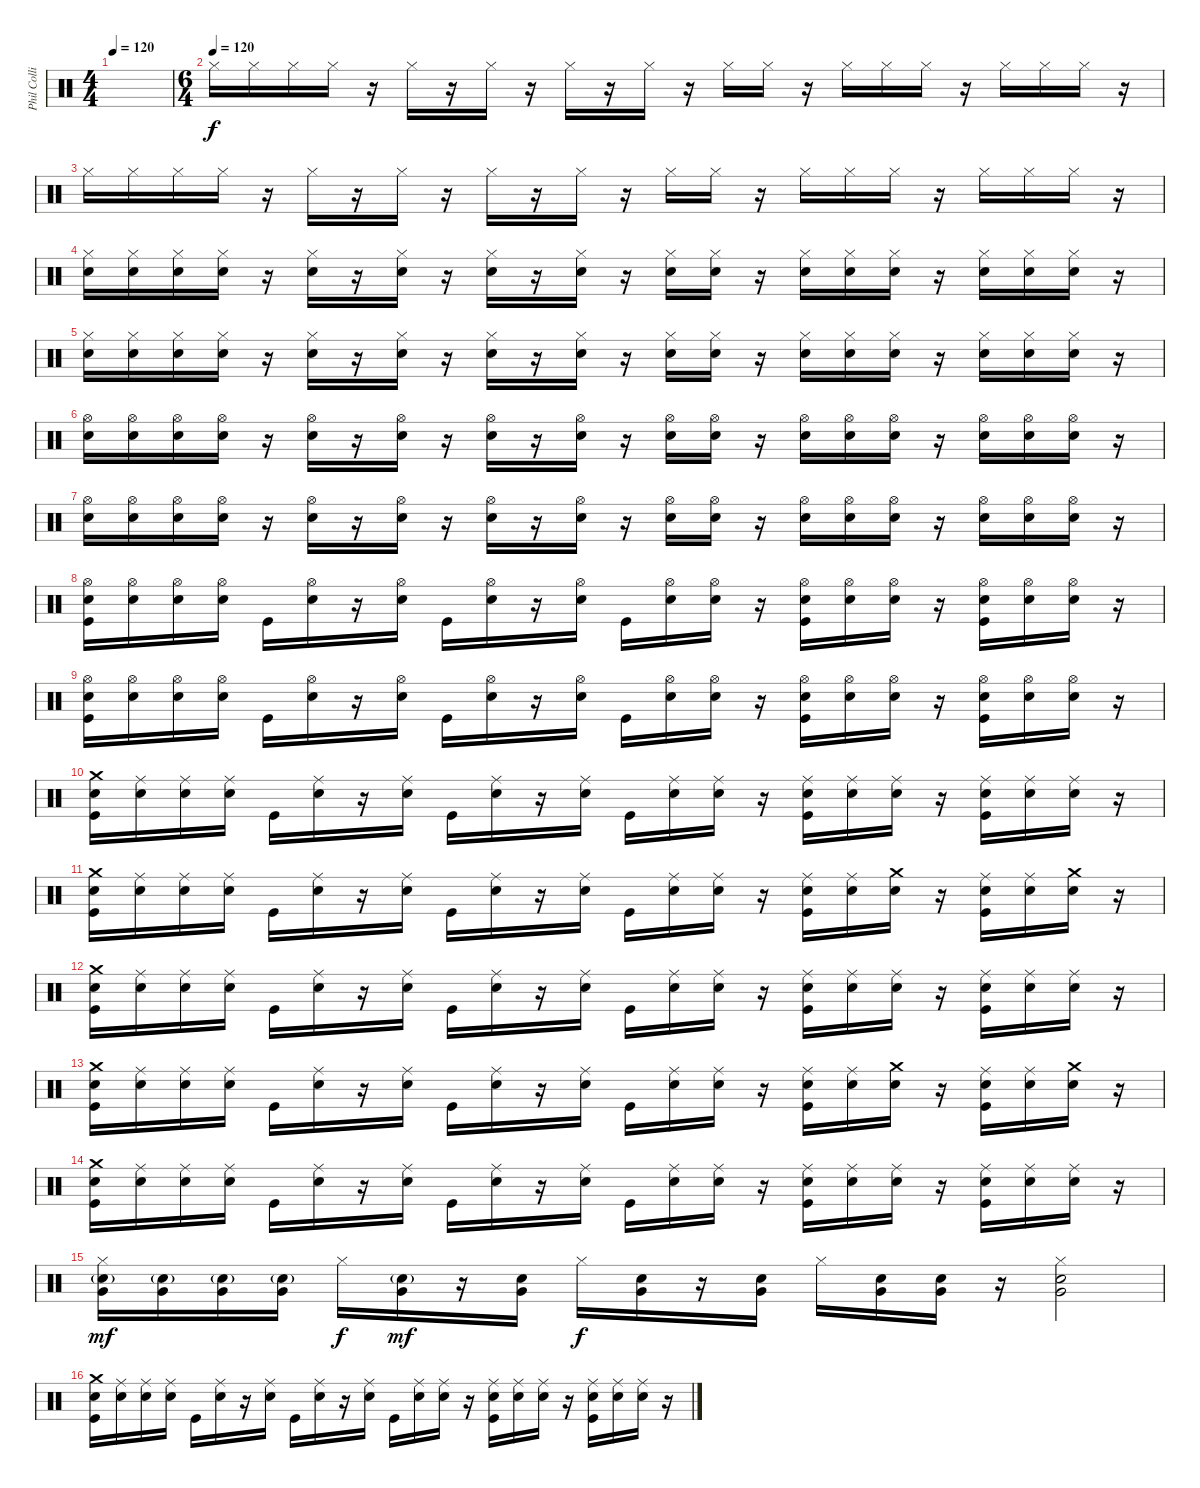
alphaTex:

\track ("Phil Collins" "Phil Colli") {instrument percussion}
\staff
\articulation defaults
\ts (4 4)
\tempo 120
\clef neutral
\ks c
|
\ts (6 4)
\tempo (120)
"Hi-Hat (closed)".16 "Hi-Hat (closed)".16 "Hi-Hat (closed)".16 "Hi-Hat (closed)".16 r.16 "Hi-Hat (closed)".16 r.16 "Hi-Hat (closed)".16 r.16 "Hi-Hat (closed)".16 r.16 "Hi-Hat (closed)".16 r.16 "Hi-Hat (closed)".16 "Hi-Hat (closed)".16 r.16 "Hi-Hat (closed)".16 "Hi-Hat (closed)".16 "Hi-Hat (closed)".16 r.16 "Hi-Hat (closed)".16 "Hi-Hat (closed)".16 "Hi-Hat (closed)".16 r.16 |
"Hi-Hat (closed)".16 "Hi-Hat (closed)".16 "Hi-Hat (closed)".16 "Hi-Hat (closed)".16 r.16 "Hi-Hat (closed)".16 r.16 "Hi-Hat (closed)".16 r.16 "Hi-Hat (closed)".16 r.16 "Hi-Hat (closed)".16 r.16 "Hi-Hat (closed)".16 "Hi-Hat (closed)".16 r.16 "Hi-Hat (closed)".16 "Hi-Hat (closed)".16 "Hi-Hat (closed)".16 r.16 "Hi-Hat (closed)".16 "Hi-Hat (closed)".16 "Hi-Hat (closed)".16 r.16 |
("Electric Snare (hit)" "Hi-Hat (closed)").16 ("Electric Snare (hit)" "Hi-Hat (closed)").16 ("Electric Snare (hit)" "Hi-Hat (closed)").16 ("Electric Snare (hit)" "Hi-Hat (closed)").16 r.16 ("Electric Snare (hit)" "Hi-Hat (closed)").16 r.16 ("Electric Snare (hit)" "Hi-Hat (closed)").16 r.16 ("Electric Snare (hit)" "Hi-Hat (closed)").16 r.16 ("Electric Snare (hit)" "Hi-Hat (closed)").16 r.16 ("Electric Snare (hit)" "Hi-Hat (closed)").16 ("Electric Snare (hit)" "Hi-Hat (closed)").16 r.16 ("Electric Snare (hit)" "Hi-Hat (closed)").16 ("Electric Snare (hit)" "Hi-Hat (closed)").16 ("Electric Snare (hit)" "Hi-Hat (closed)").16 r.16 ("Electric Snare (hit)" "Hi-Hat (closed)").16 ("Electric Snare (hit)" "Hi-Hat (closed)").16 ("Electric Snare (hit)" "Hi-Hat (closed)").16 r.16 |
("Electric Snare (hit)" "Hi-Hat (closed)").16 ("Electric Snare (hit)" "Hi-Hat (closed)").16 ("Electric Snare (hit)" "Hi-Hat (closed)").16 ("Electric Snare (hit)" "Hi-Hat (closed)").16 r.16 ("Electric Snare (hit)" "Hi-Hat (closed)").16 r.16 ("Electric Snare (hit)" "Hi-Hat (closed)").16 r.16 ("Electric Snare (hit)" "Hi-Hat (closed)").16 r.16 ("Electric Snare (hit)" "Hi-Hat (closed)").16 r.16 ("Electric Snare (hit)" "Hi-Hat (closed)").16 ("Electric Snare (hit)" "Hi-Hat (closed)").16 r.16 ("Electric Snare (hit)" "Hi-Hat (closed)").16 ("Electric Snare (hit)" "Hi-Hat (closed)").16 ("Electric Snare (hit)" "Hi-Hat (closed)").16 r.16 ("Electric Snare (hit)" "Hi-Hat (closed)").16 ("Electric Snare (hit)" "Hi-Hat (closed)").16 ("Electric Snare (hit)" "Hi-Hat (closed)").16 r.16 |
("Electric Snare (hit)" "Hi-Hat (open)").16 ("Electric Snare (hit)" "Hi-Hat (open)").16 ("Electric Snare (hit)" "Hi-Hat (open)").16 ("Electric Snare (hit)" "Hi-Hat (open)").16 r.16 ("Electric Snare (hit)" "Hi-Hat (open)").16 r.16 ("Electric Snare (hit)" "Hi-Hat (open)").16 r.16 ("Electric Snare (hit)" "Hi-Hat (open)").16 r.16 ("Electric Snare (hit)" "Hi-Hat (open)").16 r.16 ("Electric Snare (hit)" "Hi-Hat (open)").16 ("Electric Snare (hit)" "Hi-Hat (open)").16 r.16 ("Electric Snare (hit)" "Hi-Hat (open)").16 ("Electric Snare (hit)" "Hi-Hat (open)").16 ("Electric Snare (hit)" "Hi-Hat (open)").16 r.16 ("Electric Snare (hit)" "Hi-Hat (open)").16 ("Electric Snare (hit)" "Hi-Hat (open)").16 ("Electric Snare (hit)" "Hi-Hat (open)").16 r.16 |
("Electric Snare (hit)" "Hi-Hat (open)").16 ("Electric Snare (hit)" "Hi-Hat (open)").16 ("Electric Snare (hit)" "Hi-Hat (open)").16 ("Electric Snare (hit)" "Hi-Hat (open)").16 r.16 ("Electric Snare (hit)" "Hi-Hat (open)").16 r.16 ("Electric Snare (hit)" "Hi-Hat (open)").16 r.16 ("Electric Snare (hit)" "Hi-Hat (open)").16 r.16 ("Electric Snare (hit)" "Hi-Hat (open)").16 r.16 ("Electric Snare (hit)" "Hi-Hat (open)").16 ("Electric Snare (hit)" "Hi-Hat (open)").16 r.16 ("Electric Snare (hit)" "Hi-Hat (open)").16 ("Electric Snare (hit)" "Hi-Hat (open)").16 ("Electric Snare (hit)" "Hi-Hat (open)").16 r.16 ("Electric Snare (hit)" "Hi-Hat (open)").16 ("Electric Snare (hit)" "Hi-Hat (open)").16 ("Electric Snare (hit)" "Hi-Hat (open)").16 r.16 |
("Electric Snare (hit)" "Hi-Hat (open)" "Kick (hit)").16 ("Electric Snare (hit)" "Hi-Hat (open)").16 ("Electric Snare (hit)" "Hi-Hat (open)").16 ("Electric Snare (hit)" "Hi-Hat (open)").16 "Kick (hit)".16 ("Electric Snare (hit)" "Hi-Hat (open)").16 r.16 ("Electric Snare (hit)" "Hi-Hat (open)").16 "Kick (hit)".16 ("Electric Snare (hit)" "Hi-Hat (open)").16 r.16 ("Electric Snare (hit)" "Hi-Hat (open)").16 "Kick (hit)".16 ("Electric Snare (hit)" "Hi-Hat (open)").16 ("Electric Snare (hit)" "Hi-Hat (open)").16 r.16 ("Electric Snare (hit)" "Hi-Hat (open)" "Kick (hit)").16 ("Electric Snare (hit)" "Hi-Hat (open)").16 ("Electric Snare (hit)" "Hi-Hat (open)").16 r.16 ("Electric Snare (hit)" "Hi-Hat (open)" "Kick (hit)").16 ("Electric Snare (hit)" "Hi-Hat (open)").16 ("Electric Snare (hit)" "Hi-Hat (open)").16 r.16 |
("Electric Snare (hit)" "Hi-Hat (open)" "Kick (hit)").16 ("Electric Snare (hit)" "Hi-Hat (open)").16 ("Electric Snare (hit)" "Hi-Hat (open)").16 ("Electric Snare (hit)" "Hi-Hat (open)").16 "Kick (hit)".16 ("Electric Snare (hit)" "Hi-Hat (open)").16 r.16 ("Electric Snare (hit)" "Hi-Hat (open)").16 "Kick (hit)".16 ("Electric Snare (hit)" "Hi-Hat (open)").16 r.16 ("Electric Snare (hit)" "Hi-Hat (open)").16 "Kick (hit)".16 ("Electric Snare (hit)" "Hi-Hat (open)").16 ("Electric Snare (hit)" "Hi-Hat (open)").16 r.16 ("Electric Snare (hit)" "Hi-Hat (open)" "Kick (hit)").16 ("Electric Snare (hit)" "Hi-Hat (open)").16 ("Electric Snare (hit)" "Hi-Hat (open)").16 r.16 ("Electric Snare (hit)" "Hi-Hat (open)" "Kick (hit)").16 ("Electric Snare (hit)" "Hi-Hat (open)").16 ("Electric Snare (hit)" "Hi-Hat (open)").16 r.16 |
("Electric Snare (hit)" "Crash medium (hit)" "Kick (hit)").16 ("Electric Snare (hit)" "Ride (middle)").16 ("Electric Snare (hit)" "Ride (middle)").16 ("Electric Snare (hit)" "Ride (middle)").16 "Kick (hit)".16 ("Electric Snare (hit)" "Ride (middle)").16 r.16 ("Electric Snare (hit)" "Ride (middle)").16 "Kick (hit)".16 ("Electric Snare (hit)" "Ride (middle)").16 r.16 ("Electric Snare (hit)" "Ride (middle)").16 "Kick (hit)".16 ("Electric Snare (hit)" "Ride (middle)").16 ("Electric Snare (hit)" "Ride (middle)").16 r.16 ("Electric Snare (hit)" "Ride (middle)" "Kick (hit)").16 ("Electric Snare (hit)" "Ride (middle)").16 ("Electric Snare (hit)" "Ride (middle)").16 r.16 ("Electric Snare (hit)" "Ride (middle)" "Kick (hit)").16 ("Electric Snare (hit)" "Ride (middle)").16 ("Electric Snare (hit)" "Ride (middle)").16 r.16 |
("Electric Snare (hit)" "Crash medium (hit)" "Kick (hit)").16 ("Electric Snare (hit)" "Ride (middle)").16 ("Electric Snare (hit)" "Ride (middle)").16 ("Electric Snare (hit)" "Ride (middle)").16 "Kick (hit)".16 ("Electric Snare (hit)" "Ride (middle)").16 r.16 ("Electric Snare (hit)" "Ride (middle)").16 "Kick (hit)".16 ("Electric Snare (hit)" "Ride (middle)").16 r.16 ("Electric Snare (hit)" "Ride (middle)").16 "Kick (hit)".16 ("Electric Snare (hit)" "Ride (middle)").16 ("Electric Snare (hit)" "Ride (middle)").16 r.16 ("Electric Snare (hit)" "Ride (middle)" "Kick (hit)").16 ("Electric Snare (hit)" "Ride (middle)").16 ("Electric Snare (hit)" "Crash medium (hit)").16 r.16 ("Electric Snare (hit)" "Ride (middle)" "Kick (hit)").16 ("Electric Snare (hit)" "Ride (middle)").16 ("Electric Snare (hit)" "Crash medium (hit)").16 r.16 |
("Electric Snare (hit)" "Crash medium (hit)" "Kick (hit)").16 ("Electric Snare (hit)" "Ride (middle)").16 ("Electric Snare (hit)" "Ride (middle)").16 ("Electric Snare (hit)" "Ride (middle)").16 "Kick (hit)".16 ("Electric Snare (hit)" "Ride (middle)").16 r.16 ("Electric Snare (hit)" "Ride (middle)").16 "Kick (hit)".16 ("Electric Snare (hit)" "Ride (middle)").16 r.16 ("Electric Snare (hit)" "Ride (middle)").16 "Kick (hit)".16 ("Electric Snare (hit)" "Ride (middle)").16 ("Electric Snare (hit)" "Ride (middle)").16 r.16 ("Electric Snare (hit)" "Ride (middle)" "Kick (hit)").16 ("Electric Snare (hit)" "Ride (middle)").16 ("Electric Snare (hit)" "Ride (middle)").16 r.16 ("Electric Snare (hit)" "Ride (middle)" "Kick (hit)").16 ("Electric Snare (hit)" "Ride (middle)").16 ("Electric Snare (hit)" "Ride (middle)").16 r.16 |
("Electric Snare (hit)" "Crash medium (hit)" "Kick (hit)").16 ("Electric Snare (hit)" "Ride (middle)").16 ("Electric Snare (hit)" "Ride (middle)").16 ("Electric Snare (hit)" "Ride (middle)").16 "Kick (hit)".16 ("Electric Snare (hit)" "Ride (middle)").16 r.16 ("Electric Snare (hit)" "Ride (middle)").16 "Kick (hit)".16 ("Electric Snare (hit)" "Ride (middle)").16 r.16 ("Electric Snare (hit)" "Ride (middle)").16 "Kick (hit)".16 ("Electric Snare (hit)" "Ride (middle)").16 ("Electric Snare (hit)" "Ride (middle)").16 r.16 ("Electric Snare (hit)" "Ride (middle)" "Kick (hit)").16 ("Electric Snare (hit)" "Ride (middle)").16 ("Electric Snare (hit)" "Crash medium (hit)").16 r.16 ("Electric Snare (hit)" "Ride (middle)" "Kick (hit)").16 ("Electric Snare (hit)" "Ride (middle)").16 ("Electric Snare (hit)" "Crash medium (hit)").16 r.16 |
("Electric Snare (hit)" "Crash medium (hit)" "Kick (hit)").16 ("Electric Snare (hit)" "Ride (middle)").16 ("Electric Snare (hit)" "Ride (middle)").16 ("Electric Snare (hit)" "Ride (middle)").16 "Kick (hit)".16 ("Electric Snare (hit)" "Ride (middle)").16 r.16 ("Electric Snare (hit)" "Ride (middle)").16 "Kick (hit)".16 ("Electric Snare (hit)" "Ride (middle)").16 r.16 ("Electric Snare (hit)" "Ride (middle)").16 "Kick (hit)".16 ("Electric Snare (hit)" "Ride (middle)").16 ("Electric Snare (hit)" "Ride (middle)").16 r.16 ("Electric Snare (hit)" "Ride (middle)" "Kick (hit)").16 ("Electric Snare (hit)" "Ride (middle)").16 ("Electric Snare (hit)" "Ride (middle)").16 r.16 ("Electric Snare (hit)" "Ride (middle)" "Kick (hit)").16 ("Electric Snare (hit)" "Ride (middle)").16 ("Electric Snare (hit)" "Ride (middle)").16 r.16 |
("Electric Snare (hit)"{g} "Very Low Tom (hit)" "Hi-Hat (closed)").16{dy mf} ("Electric Snare (hit)"{g} "Very Low Tom (hit)").16 ("Electric Snare (hit)"{g} "Very Low Tom (hit)").16 ("Electric Snare (hit)"{g} "Very Low Tom (hit)").16 "Hi-Hat (closed)".16{dy f} ("Electric Snare (hit)"{g} "Very Low Tom (hit)").16{dy mf} r.16 ("Electric Snare (hit)" "Very Low Tom (hit)").16 "Hi-Hat (closed)".16{dy f} ("Electric Snare (hit)" "Very Low Tom (hit)").16 r.16 ("Electric Snare (hit)" "Very Low Tom (hit)").16 "Hi-Hat (closed)".16 ("Electric Snare (hit)" "Very Low Tom (hit)").16 ("Electric Snare (hit)" "Very Low Tom (hit)").16 r.16 ("Electric Snare (hit)" "Very Low Tom (hit)" "Hi-Hat (closed)").2 |
("Electric Snare (hit)" "Crash medium (hit)" "Kick (hit)").16 ("Electric Snare (hit)" "Ride (middle)").16 ("Electric Snare (hit)" "Ride (middle)").16 ("Electric Snare (hit)" "Ride (middle)").16 "Kick (hit)".16 ("Electric Snare (hit)" "Ride (middle)").16 r.16 ("Electric Snare (hit)" "Ride (middle)").16 "Kick (hit)".16 ("Electric Snare (hit)" "Ride (middle)").16 r.16 ("Electric Snare (hit)" "Ride (middle)").16 "Kick (hit)".16 ("Electric Snare (hit)" "Ride (middle)").16 ("Electric Snare (hit)" "Ride (middle)").16 r.16 ("Electric Snare (hit)" "Ride (middle)" "Kick (hit)").16 ("Electric Snare (hit)" "Ride (middle)").16 ("Electric Snare (hit)" "Ride (middle)").16 r.16 ("Electric Snare (hit)" "Ride (middle)" "Kick (hit)").16 ("Electric Snare (hit)" "Ride (middle)").16 ("Electric Snare (hit)" "Ride (middle)").16 r.16
